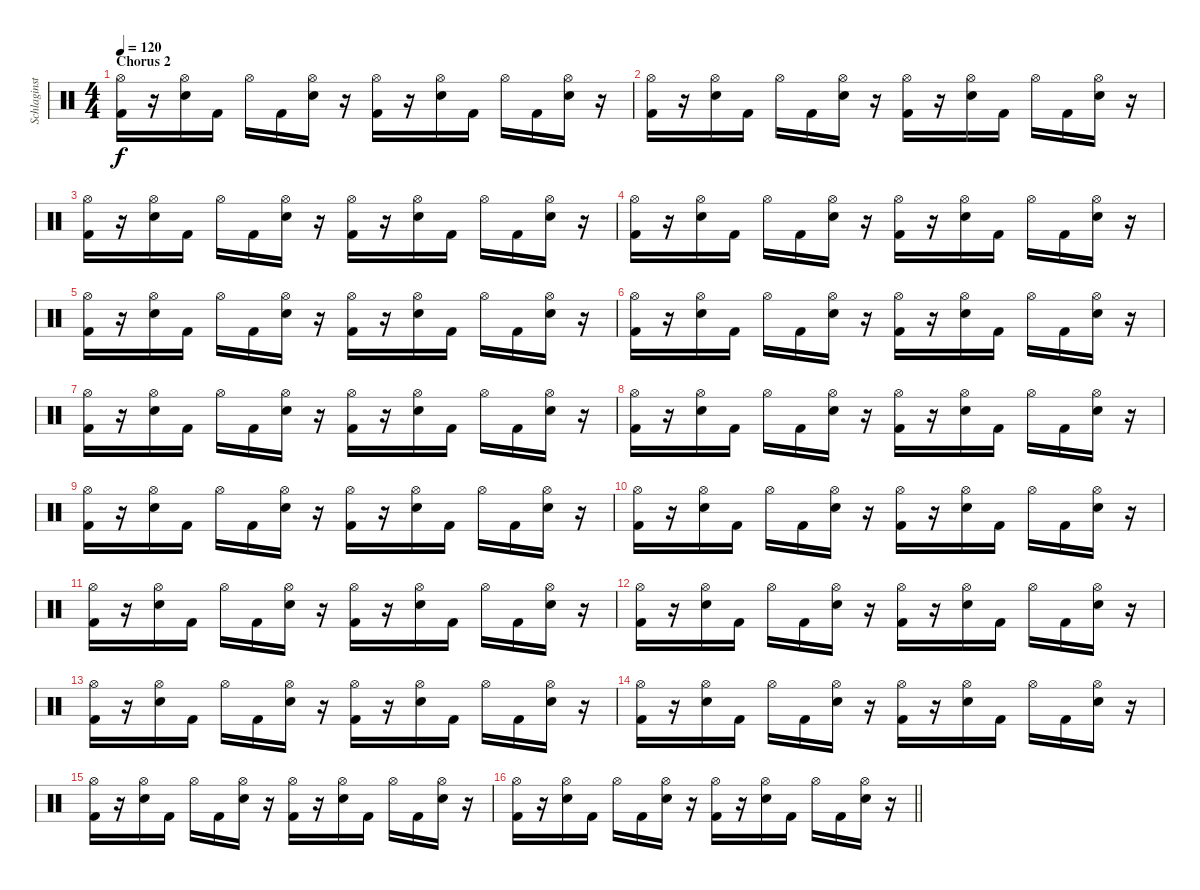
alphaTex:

\track ("Schlaginstrumente - Auswahl" "Schlaginst") {instrument percussion}
\staff {score}
\articulation defaults
\ts (4 4)
\section ("" "Chorus 2")
\tempo 120
\clef neutral
\ks c
("Kick (hit) 2" "Hi-Hat (open)").16{dy f} r.16 ("Snare (hit) 2" "Hi-Hat (open)").16 "Kick (hit) 2".16 "Hi-Hat (open)".16 "Kick (hit) 2".16 ("Snare (hit) 2" "Hi-Hat (open)").16 r.16 ("Kick (hit) 2" "Hi-Hat (open)").16 r.16 ("Snare (hit) 2" "Hi-Hat (open)").16 "Kick (hit) 2".16 "Hi-Hat (open)".16 "Kick (hit) 2".16 ("Snare (hit) 2" "Hi-Hat (open)").16 r.16 |
("Kick (hit) 2" "Hi-Hat (open)").16 r.16 ("Snare (hit) 2" "Hi-Hat (open)").16 "Kick (hit) 2".16 "Hi-Hat (open)".16 "Kick (hit) 2".16 ("Snare (hit) 2" "Hi-Hat (open)").16 r.16 ("Kick (hit) 2" "Hi-Hat (open)").16 r.16 ("Snare (hit) 2" "Hi-Hat (open)").16 "Kick (hit) 2".16 "Hi-Hat (open)".16 "Kick (hit) 2".16 ("Snare (hit) 2" "Hi-Hat (open)").16 r.16 |
("Kick (hit) 2" "Hi-Hat (open)").16 r.16 ("Snare (hit) 2" "Hi-Hat (open)").16 "Kick (hit) 2".16 "Hi-Hat (open)".16 "Kick (hit) 2".16 ("Snare (hit) 2" "Hi-Hat (open)").16 r.16 ("Kick (hit) 2" "Hi-Hat (open)").16 r.16 ("Snare (hit) 2" "Hi-Hat (open)").16 "Kick (hit) 2".16 "Hi-Hat (open)".16 "Kick (hit) 2".16 ("Snare (hit) 2" "Hi-Hat (open)").16 r.16 |
("Kick (hit) 2" "Hi-Hat (open)").16 r.16 ("Snare (hit) 2" "Hi-Hat (open)").16 "Kick (hit) 2".16 "Hi-Hat (open)".16 "Kick (hit) 2".16 ("Snare (hit) 2" "Hi-Hat (open)").16 r.16 ("Kick (hit) 2" "Hi-Hat (open)").16 r.16 ("Snare (hit) 2" "Hi-Hat (open)").16 "Kick (hit) 2".16 "Hi-Hat (open)".16 "Kick (hit) 2".16 ("Snare (hit) 2" "Hi-Hat (open)").16 r.16 |
("Kick (hit) 2" "Hi-Hat (open)").16 r.16 ("Snare (hit) 2" "Hi-Hat (open)").16 "Kick (hit) 2".16 "Hi-Hat (open)".16 "Kick (hit) 2".16 ("Snare (hit) 2" "Hi-Hat (open)").16 r.16 ("Kick (hit) 2" "Hi-Hat (open)").16 r.16 ("Snare (hit) 2" "Hi-Hat (open)").16 "Kick (hit) 2".16 "Hi-Hat (open)".16 "Kick (hit) 2".16 ("Snare (hit) 2" "Hi-Hat (open)").16 r.16 |
("Kick (hit) 2" "Hi-Hat (open)").16 r.16 ("Snare (hit) 2" "Hi-Hat (open)").16 "Kick (hit) 2".16 "Hi-Hat (open)".16 "Kick (hit) 2".16 ("Snare (hit) 2" "Hi-Hat (open)").16 r.16 ("Kick (hit) 2" "Hi-Hat (open)").16 r.16 ("Snare (hit) 2" "Hi-Hat (open)").16 "Kick (hit) 2".16 "Hi-Hat (open)".16 "Kick (hit) 2".16 ("Snare (hit) 2" "Hi-Hat (open)").16 r.16 |
("Kick (hit) 2" "Hi-Hat (open)").16 r.16 ("Snare (hit) 2" "Hi-Hat (open)").16 "Kick (hit) 2".16 "Hi-Hat (open)".16 "Kick (hit) 2".16 ("Snare (hit) 2" "Hi-Hat (open)").16 r.16 ("Kick (hit) 2" "Hi-Hat (open)").16 r.16 ("Snare (hit) 2" "Hi-Hat (open)").16 "Kick (hit) 2".16 "Hi-Hat (open)".16 "Kick (hit) 2".16 ("Snare (hit) 2" "Hi-Hat (open)").16 r.16 |
("Kick (hit) 2" "Hi-Hat (open)").16 r.16 ("Snare (hit) 2" "Hi-Hat (open)").16 "Kick (hit) 2".16 "Hi-Hat (open)".16 "Kick (hit) 2".16 ("Snare (hit) 2" "Hi-Hat (open)").16 r.16 ("Kick (hit) 2" "Hi-Hat (open)").16 r.16 ("Snare (hit) 2" "Hi-Hat (open)").16 "Kick (hit) 2".16 "Hi-Hat (open)".16 "Kick (hit) 2".16 ("Snare (hit) 2" "Hi-Hat (open)").16 r.16 |
("Kick (hit) 2" "Hi-Hat (open)").16 r.16 ("Snare (hit) 2" "Hi-Hat (open)").16 "Kick (hit) 2".16 "Hi-Hat (open)".16 "Kick (hit) 2".16 ("Snare (hit) 2" "Hi-Hat (open)").16 r.16 ("Kick (hit) 2" "Hi-Hat (open)").16 r.16 ("Snare (hit) 2" "Hi-Hat (open)").16 "Kick (hit) 2".16 "Hi-Hat (open)".16 "Kick (hit) 2".16 ("Snare (hit) 2" "Hi-Hat (open)").16 r.16 |
("Kick (hit) 2" "Hi-Hat (open)").16 r.16 ("Snare (hit) 2" "Hi-Hat (open)").16 "Kick (hit) 2".16 "Hi-Hat (open)".16 "Kick (hit) 2".16 ("Snare (hit) 2" "Hi-Hat (open)").16 r.16 ("Kick (hit) 2" "Hi-Hat (open)").16 r.16 ("Snare (hit) 2" "Hi-Hat (open)").16 "Kick (hit) 2".16 "Hi-Hat (open)".16 "Kick (hit) 2".16 ("Snare (hit) 2" "Hi-Hat (open)").16 r.16 |
("Kick (hit) 2" "Hi-Hat (open)").16 r.16 ("Snare (hit) 2" "Hi-Hat (open)").16 "Kick (hit) 2".16 "Hi-Hat (open)".16 "Kick (hit) 2".16 ("Snare (hit) 2" "Hi-Hat (open)").16 r.16 ("Kick (hit) 2" "Hi-Hat (open)").16 r.16 ("Snare (hit) 2" "Hi-Hat (open)").16 "Kick (hit) 2".16 "Hi-Hat (open)".16 "Kick (hit) 2".16 ("Snare (hit) 2" "Hi-Hat (open)").16 r.16 |
("Kick (hit) 2" "Hi-Hat (open)").16 r.16 ("Snare (hit) 2" "Hi-Hat (open)").16 "Kick (hit) 2".16 "Hi-Hat (open)".16 "Kick (hit) 2".16 ("Snare (hit) 2" "Hi-Hat (open)").16 r.16 ("Kick (hit) 2" "Hi-Hat (open)").16 r.16 ("Snare (hit) 2" "Hi-Hat (open)").16 "Kick (hit) 2".16 "Hi-Hat (open)".16 "Kick (hit) 2".16 ("Snare (hit) 2" "Hi-Hat (open)").16 r.16 |
("Kick (hit) 2" "Hi-Hat (open)").16 r.16 ("Snare (hit) 2" "Hi-Hat (open)").16 "Kick (hit) 2".16 "Hi-Hat (open)".16 "Kick (hit) 2".16 ("Snare (hit) 2" "Hi-Hat (open)").16 r.16 ("Kick (hit) 2" "Hi-Hat (open)").16 r.16 ("Snare (hit) 2" "Hi-Hat (open)").16 "Kick (hit) 2".16 "Hi-Hat (open)".16 "Kick (hit) 2".16 ("Snare (hit) 2" "Hi-Hat (open)").16 r.16 |
("Kick (hit) 2" "Hi-Hat (open)").16 r.16 ("Snare (hit) 2" "Hi-Hat (open)").16 "Kick (hit) 2".16 "Hi-Hat (open)".16 "Kick (hit) 2".16 ("Snare (hit) 2" "Hi-Hat (open)").16 r.16 ("Kick (hit) 2" "Hi-Hat (open)").16 r.16 ("Snare (hit) 2" "Hi-Hat (open)").16 "Kick (hit) 2".16 "Hi-Hat (open)".16 "Kick (hit) 2".16 ("Snare (hit) 2" "Hi-Hat (open)").16 r.16 |
("Kick (hit) 2" "Hi-Hat (open)").16 r.16 ("Snare (hit) 2" "Hi-Hat (open)").16 "Kick (hit) 2".16 "Hi-Hat (open)".16 "Kick (hit) 2".16 ("Snare (hit) 2" "Hi-Hat (open)").16 r.16 ("Kick (hit) 2" "Hi-Hat (open)").16 r.16 ("Snare (hit) 2" "Hi-Hat (open)").16 "Kick (hit) 2".16 "Hi-Hat (open)".16 "Kick (hit) 2".16 ("Snare (hit) 2" "Hi-Hat (open)").16 r.16 |
\barLineRight lightlight
("Kick (hit) 2" "Hi-Hat (open)").16 r.16 ("Snare (hit) 2" "Hi-Hat (open)").16 "Kick (hit) 2".16 "Hi-Hat (open)".16 "Kick (hit) 2".16 ("Snare (hit) 2" "Hi-Hat (open)").16 r.16 ("Kick (hit) 2" "Hi-Hat (open)").16 r.16 ("Snare (hit) 2" "Hi-Hat (open)").16 "Kick (hit) 2".16 "Hi-Hat (open)".16 "Kick (hit) 2".16 ("Snare (hit) 2" "Hi-Hat (open)").16 r.16
